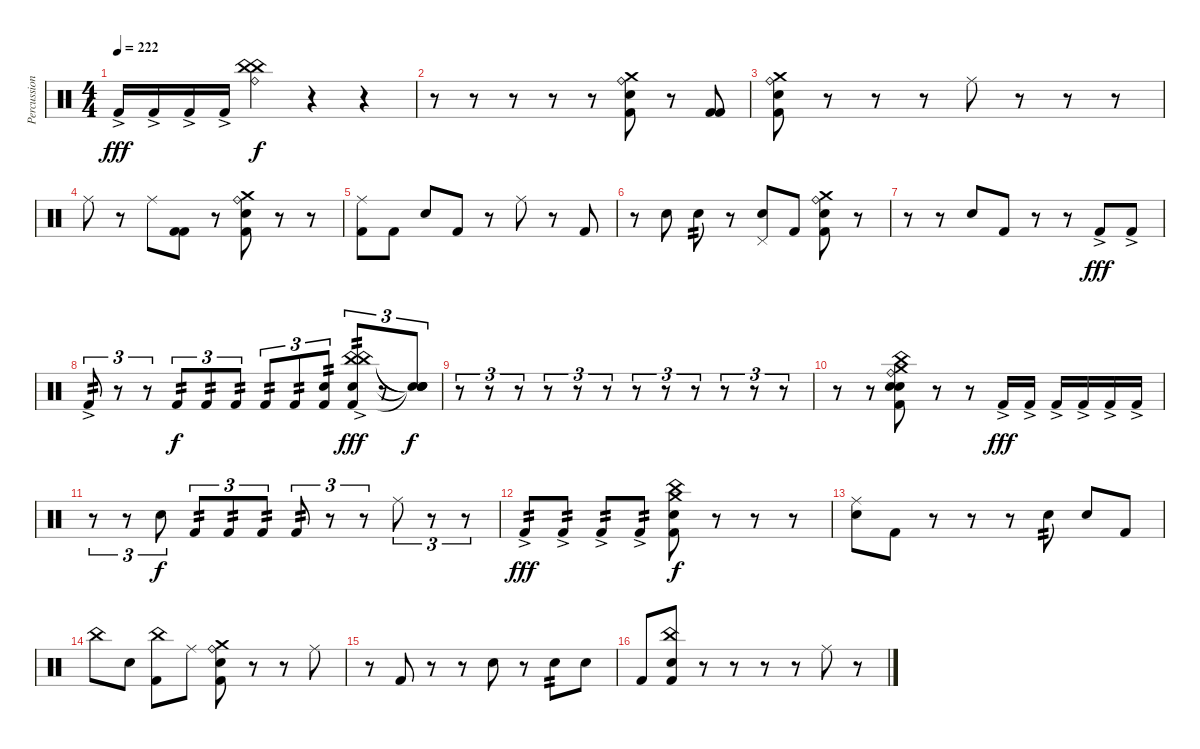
\track ("Percussions" "Percussion") {instrument percussion}
\staff {score}
\articulation defaults
\ts (4 4)
\tempo 222
\clef neutral
\ks c "Kick (hit) 2"{ac}.16{dy fff} "Kick (hit) 2"{ac}.16 "Kick (hit) 2"{ac}.16 "Kick (hit) 2"{ac}.16
("Ride (bell)" "China (hit)" "China (hit)").4{dy f} r.4 r.4 |
r.8 r.8 r.8 r.8 r.8 ("Ride (bell)" "Snare (hit) 2" "Crash medium (hit)" "Kick (hit) 2").8 r.8 ("Kick (hit) 2" "Kick (hit) 2").8 |
("Ride (bell)" "Snare (hit) 2" "Crash medium (hit)" "Kick (hit) 2").8 r.8 r.8 r.8 "Ride (middle)".8 r.8 r.8 r.8 |
"Ride (middle)".8 r.8 "Ride (middle)".8 ("Kick (hit) 2" "Kick (hit) 2").8 r.8 ("Ride (bell)" "Snare (hit) 2" "Crash medium (hit)" "Kick (hit) 2").8 r.8 r.8 |
("Ride (middle)" "Kick (hit) 2").8 "Kick (hit) 2".8 "Snare (hit) 2".8 "Kick (hit) 2".8 r.8 "Ride (middle)".8 r.8 "Kick (hit) 2".8 |
r.8 "Snare (hit) 2".8 "Snare (hit) 2".8{tp 2} r.8 ("Snare (hit) 2" "Pedal Hi-Hat (hit)").8 "Kick (hit) 2".8 ("Ride (bell)" "Snare (hit) 2" "Crash medium (hit)" "Kick (hit) 2").8 r.8 |
r.8 r.8 "Snare (hit) 2".8 "Kick (hit) 2".8 r.8 r.8 "Kick (hit) 2"{ac}.8{dy fff} "Kick (hit) 2"{ac}.8 |
"Kick (hit) 2"{ac}.8{tu (3 2) tp 2} r.8{tu (3 2)} r.8{tu (3 2)} "Kick (hit) 2".8{tu (3 2) tp 2 dy f} "Kick (hit) 2".8{tu (3 2) tp 2} "Kick (hit) 2".8{tu (3 2) tp 2} "Kick (hit) 2".8{tu (3 2) tp 2} "Kick (hit) 2".8{tu (3 2) tp 2} ("Snare (hit) 2" "Kick (hit) 2").8{tu (3 2) tp 2} ("China (hit)" "China (hit)" "Snare (hit) 2" "Kick (hit) 2"{ac}).8{tu (3 2) tp 2 dy fff} r.8{tu (3 2)} ("Snare (hit)"{t} "Snare (hit)"{t} "Snare (hit)"{t} "Snare (hit)"{t}).8{tu (3 2) dy f} |
r.8{tu (3 2)} r.8{tu (3 2)} r.8{tu (3 2)} r.8{tu (3 2)} r.8{tu (3 2)} r.8{tu (3 2)} r.8{tu (3 2)} r.8{tu (3 2)} r.8{tu (3 2)} r.8{tu (3 2)} r.8{tu (3 2)} r.8{tu (3 2)} |
r.8 r.8 ("China (hit)" "Snare (hit)" "Ride (bell)" "Snare (hit) 2" "Crash medium (hit)" "Kick (hit) 2").8 r.8 r.8 "Kick (hit) 2"{ac}.16{dy fff} "Kick (hit) 2"{ac}.16 "Kick (hit) 2"{ac}.16 "Kick (hit) 2"{ac}.16 "Kick (hit) 2"{ac}.16 "Kick (hit) 2"{ac}.16 |
r.8{tu (3 2)} r.8{tu (3 2)} "Snare (hit) 2".8{tu (3 2) dy f} "Kick (hit) 2".8{tu (3 2) tp 2} "Kick (hit) 2".8{tu (3 2) tp 2} "Kick (hit) 2".8{tu (3 2) tp 2} "Kick (hit) 2".8{tu (3 2) tp 2} r.8{tu (3 2)} r.8{tu (3 2)} "Ride (middle)".8{tu (3 2)} r.8{tu (3 2)} r.8{tu (3 2)} |
"Kick (hit) 2"{ac}.8{tp 2 dy fff} "Kick (hit) 2"{ac}.8{tp 2} "Kick (hit) 2"{ac}.8{tp 2} "Kick (hit) 2"{ac}.8{tp 2} ("China (hit)" "Crash medium (hit)" "Snare (hit) 2" "Kick (hit) 2").8{dy f} r.8 r.8 r.8 |
("Ride (middle)" "Snare (hit) 2").8 "Kick (hit) 2".8 r.8 r.8 r.8 "Snare (hit) 2".8{tp 2} "Snare (hit) 2".8 "Kick (hit) 2".8 |
"China (hit)".8 "Snare (hit) 2".8 ("China (hit)" "Kick (hit) 2").8 "Ride (middle)".8 ("Ride (bell)" "Snare (hit) 2" "Crash medium (hit)" "Kick (hit) 2").8 r.8 r.8 "Ride (middle)".8 |
r.8 "Kick (hit) 2".8 r.8 r.8 "Snare (hit) 2".8 r.8 "Snare (hit) 2".8{tp 2} "Snare (hit) 2".8 |
"Kick (hit) 2".8 ("China (hit)" "Snare (hit) 2" "Kick (hit) 2").8 r.8 r.8 r.8 r.8 "Ride (middle)".8 r.8
